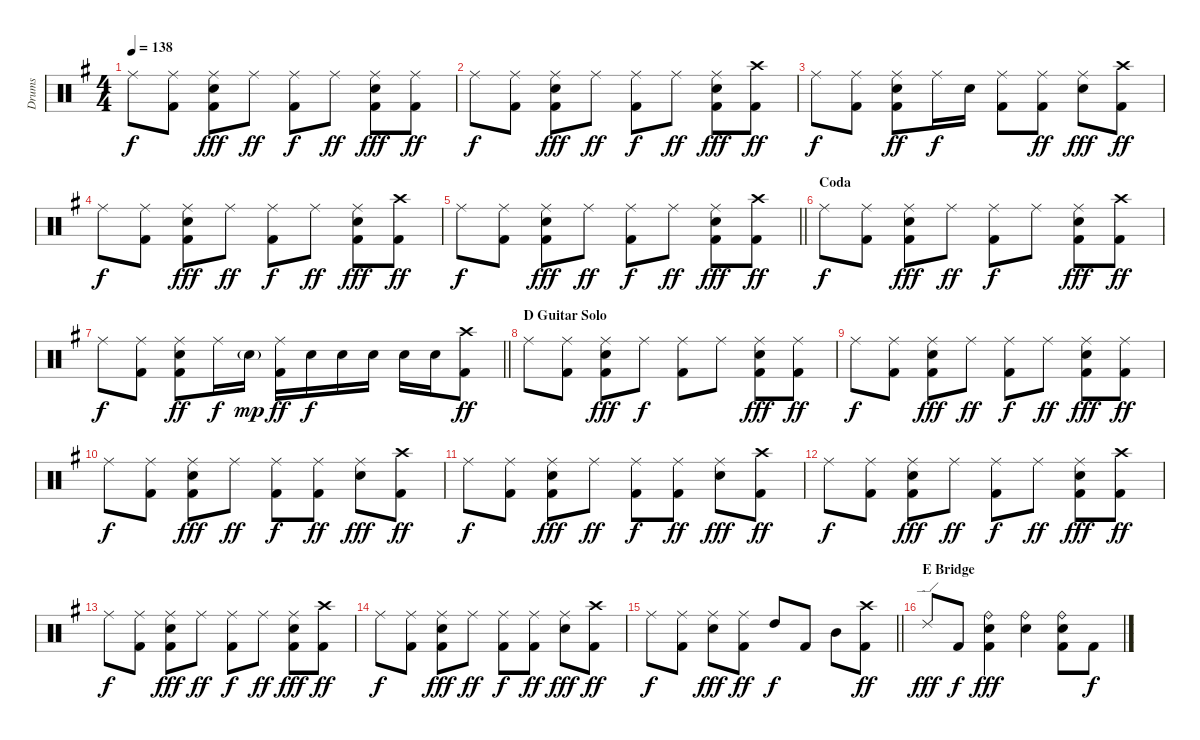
\track ("Drums" "Drums") {instrument percussion}
\staff {score}
\articulation defaults
\ts (4 4)
\tempo 138
\clef neutral
\ks g "Ride (middle)".8{dy f}
("Ride (middle)" "Kick (hit) 2").8 ("Ride (middle)" "Snare (hit) 2" "Kick (hit) 2").8{dy fff} "Ride (middle)".8{dy ff} ("Ride (middle)" "Kick (hit) 2").8{dy f} "Ride (middle)".8{dy ff} ("Ride (middle)" "Snare (hit) 2" "Kick (hit) 2").8{dy fff} ("Ride (middle)" "Kick (hit) 2").8{dy ff} |
"Ride (middle)".8{dy f} ("Ride (middle)" "Kick (hit) 2").8 ("Ride (middle)" "Snare (hit) 2" "Kick (hit) 2").8{dy fff} "Ride (middle)".8{dy ff} ("Ride (middle)" "Kick (hit) 2").8{dy f} "Ride (middle)".8{dy ff} ("Ride (middle)" "Snare (hit) 2" "Kick (hit) 2").8{dy fff} ("Crash high (hit)" "Kick (hit) 2").8{dy ff} |
"Ride (middle)".8{dy f} ("Ride (middle)" "Kick (hit) 2").8 ("Ride (middle)" "Snare (hit) 2" "Kick (hit) 2").8{dy ff} "Ride (middle)".16{dy f} "Snare (hit) 2".16 ("Ride (middle)" "Kick (hit) 2").8 ("Ride (middle)" "Kick (hit) 2").8{dy ff} ("Ride (middle)" "Snare (hit) 2").8{dy fff} ("Crash high (hit)" "Kick (hit) 2").8{dy ff} |
"Ride (middle)".8{dy f} ("Ride (middle)" "Kick (hit) 2").8 ("Ride (middle)" "Snare (hit) 2" "Kick (hit) 2").8{dy fff} "Ride (middle)".8{dy ff} ("Ride (middle)" "Kick (hit) 2").8{dy f} "Ride (middle)".8{dy ff} ("Ride (middle)" "Snare (hit) 2" "Kick (hit) 2").8{dy fff} ("Crash high (hit)" "Kick (hit) 2").8{dy ff} |
\barLineRight lightlight "Ride (middle)".8{dy f}
("Ride (middle)" "Kick (hit) 2").8 ("Ride (middle)" "Snare (hit) 2" "Kick (hit) 2").8{dy fff} "Ride (middle)".8{dy ff} ("Ride (middle)" "Kick (hit) 2").8{dy f} "Ride (middle)".8{dy ff} ("Ride (middle)" "Snare (hit) 2" "Kick (hit) 2").8{dy fff} ("Crash high (hit)" "Kick (hit) 2").8{dy ff} |
\section ("" "Coda")
"Ride (middle)".8{dy f} ("Ride (middle)" "Kick (hit) 2").8 ("Ride (middle)" "Snare (hit) 2" "Kick (hit) 2").8{dy fff} "Ride (middle)".8{dy ff} ("Ride (middle)" "Kick (hit) 2").8{dy f} "Ride (middle)".8 ("Ride (middle)" "Snare (hit) 2" "Kick (hit) 2").8{dy fff} ("Crash high (hit)" "Kick (hit) 2").8{dy ff} |
\barLineRight lightlight "Ride (middle)".8{dy f}
("Ride (middle)" "Kick (hit) 2").8 ("Ride (middle)" "Snare (hit) 2" "Kick (hit) 2").8{dy ff} "Ride (middle)".16{dy f} "Snare (hit) 2"{g}.16{dy mp} ("Ride (middle)" "Kick (hit) 2").16{dy ff} "Snare (hit) 2".16{dy f} "Snare (hit) 2".16 "Snare (hit) 2".16 "Snare (hit) 2".16 "Snare (hit) 2".16 ("Crash high (hit)" "Kick (hit) 2").8{dy ff} |
\section ("" "D Guitar Solo")
"Ride (middle)".8 ("Ride (middle)" "Kick (hit) 2").8 ("Ride (middle)" "Snare (hit) 2" "Kick (hit) 2").8{dy fff} "Ride (middle)".8{dy f} ("Ride (middle)" "Kick (hit) 2").8 "Ride (middle)".8 ("Ride (middle)" "Snare (hit) 2" "Kick (hit) 2").8{dy fff} ("Ride (middle)" "Kick (hit) 2").8{dy ff} |
"Ride (middle)".8{dy f} ("Ride (middle)" "Kick (hit) 2").8 ("Ride (middle)" "Snare (hit) 2" "Kick (hit) 2").8{dy fff} "Ride (middle)".8{dy ff} ("Ride (middle)" "Kick (hit) 2").8{dy f} "Ride (middle)".8{dy ff} ("Ride (middle)" "Snare (hit) 2" "Kick (hit) 2").8{dy fff} ("Ride (middle)" "Kick (hit) 2").8{dy ff} |
"Ride (middle)".8{dy f} ("Ride (middle)" "Kick (hit) 2").8 ("Ride (middle)" "Snare (hit) 2" "Kick (hit) 2").8{dy fff} "Ride (middle)".8{dy ff} ("Ride (middle)" "Kick (hit) 2").8{dy f} ("Ride (middle)" "Kick (hit) 2").8{dy ff} ("Ride (middle)" "Snare (hit) 2").8{dy fff} ("Crash high (hit)" "Kick (hit) 2").8{dy ff} |
"Ride (middle)".8{dy f} ("Ride (middle)" "Kick (hit) 2").8 ("Ride (middle)" "Snare (hit) 2" "Kick (hit) 2").8{dy fff} "Ride (middle)".8{dy ff} ("Ride (middle)" "Kick (hit) 2").8{dy f} ("Ride (middle)" "Kick (hit) 2").8{dy ff} ("Ride (middle)" "Snare (hit) 2").8{dy fff} ("Crash high (hit)" "Kick (hit) 2").8{dy ff} |
"Ride (middle)".8{dy f} ("Ride (middle)" "Kick (hit) 2").8 ("Ride (middle)" "Snare (hit) 2" "Kick (hit) 2").8{dy fff} "Ride (middle)".8{dy ff} ("Ride (middle)" "Kick (hit) 2").8{dy f} "Ride (middle)".8{dy ff} ("Ride (middle)" "Snare (hit) 2" "Kick (hit) 2").8{dy fff} ("Crash high (hit)" "Kick (hit) 2").8{dy ff} |
"Ride (middle)".8{dy f} ("Ride (middle)" "Kick (hit) 2").8 ("Ride (middle)" "Snare (hit) 2" "Kick (hit) 2").8{dy fff} "Ride (middle)".8{dy ff} ("Ride (middle)" "Kick (hit) 2").8{dy f} "Ride (middle)".8{dy ff} ("Ride (middle)" "Snare (hit) 2" "Kick (hit) 2").8{dy fff} ("Crash high (hit)" "Kick (hit) 2").8{dy ff} |
"Ride (middle)".8{dy f} ("Ride (middle)" "Kick (hit) 2").8 ("Ride (middle)" "Snare (hit) 2" "Kick (hit) 2").8{dy fff} "Ride (middle)".8{dy ff} ("Ride (middle)" "Kick (hit) 2").8{dy f} ("Ride (middle)" "Kick (hit) 2").8{dy ff} ("Ride (middle)" "Snare (hit) 2").8{dy fff} ("Crash high (hit)" "Kick (hit) 2").8{dy ff} |
\barLineRight lightlight "Ride (middle)".8{dy f}
("Ride (middle)" "Kick (hit) 2").8 ("Ride (middle)" "Snare (hit) 2").8{dy fff} ("Ride (middle)" "Kick (hit) 2").8{dy ff} "High Tom (hit)".8{dy f} "Kick (hit) 2".8 "Mid Tom (hit)".8 ("Crash high (hit)" "Kick (hit) 2").8{dy ff} |
\section ("" "E Bridge")
"Ride (edge) 2".8{dy fff} "Kick (hit) 2".8{dy f} ("Ride (bell)" "Snare (hit) 2" "Kick (hit) 2").4{dy fff} ("Ride (bell)" "Snare (hit) 2").4 ("Ride (bell)" "Snare (hit) 2" "Kick (hit) 2").8 "Kick (hit) 2".8{dy f}
